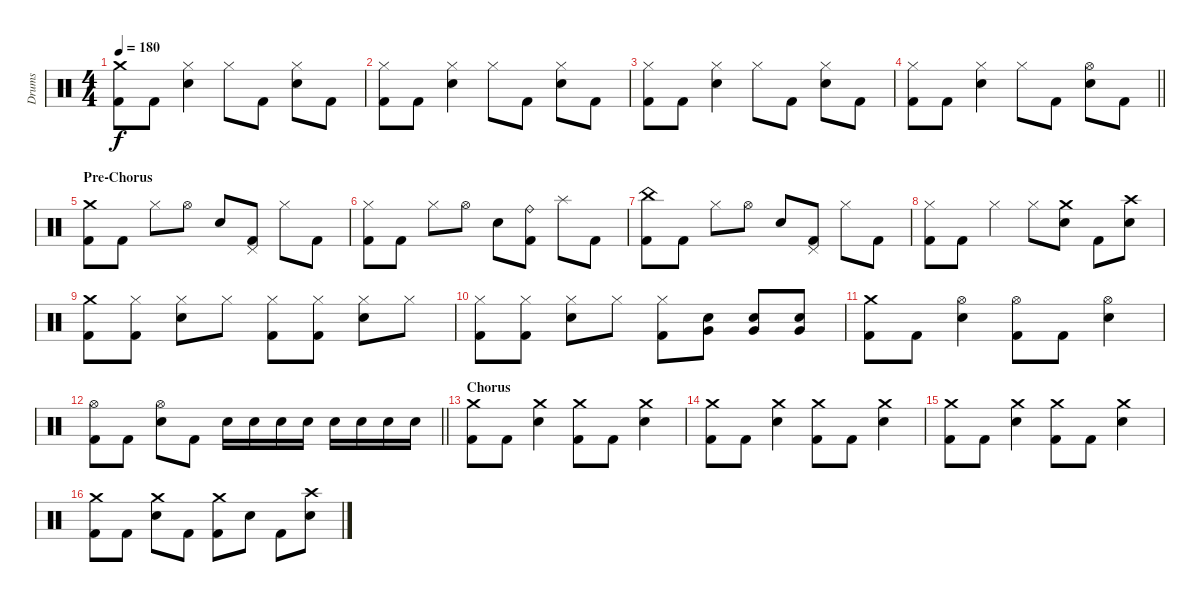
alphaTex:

\track ("Drums" "Drums") {instrument percussion}
\staff {score}
\articulation defaults
\ts (4 4)
\tempo 180
\clef neutral
\ks c
("Crash medium (hit)" "Kick (hit) 2").8{dy f} "Kick (hit) 2".8 ("Hi-Hat (closed)" "Electric Snare (hit)").4 "Hi-Hat (closed)".8 "Kick (hit) 2".8 ("Hi-Hat (closed)" "Electric Snare (hit)").8 "Kick (hit) 2".8 |
("Hi-Hat (closed)" "Kick (hit) 2").8 "Kick (hit) 2".8 ("Hi-Hat (closed)" "Electric Snare (hit)").4 "Hi-Hat (closed)".8 "Kick (hit) 2".8 ("Hi-Hat (closed)" "Electric Snare (hit)").8 "Kick (hit) 2".8 |
("Hi-Hat (closed)" "Kick (hit) 2").8 "Kick (hit) 2".8 ("Hi-Hat (closed)" "Electric Snare (hit)").4 "Hi-Hat (closed)".8 "Kick (hit) 2".8 ("Hi-Hat (closed)" "Electric Snare (hit)").8 "Kick (hit) 2".8 |
\barLineRight lightlight
("Hi-Hat (closed)" "Kick (hit) 2").8 "Kick (hit) 2".8 ("Hi-Hat (closed)" "Electric Snare (hit)").4 "Hi-Hat (closed)".8 "Kick (hit) 2".8 ("Hi-Hat (open)" "Electric Snare (hit)").8 "Kick (hit) 2".8 |
\section ("" "Pre-Chorus")
("Crash medium (hit)" "Kick (hit) 2").8 "Kick (hit) 2".8 "Hi-Hat (closed)".8 "Hi-Hat (open)".8 "Electric Snare (hit)".8 ("Pedal Hi-Hat (hit)" "Kick (hit) 2").8 "Hi-Hat (closed)".8 "Kick (hit) 2".8 |
("Hi-Hat (closed)" "Kick (hit) 2").8 "Kick (hit) 2".8 "Hi-Hat (closed)".8 "Hi-Hat (open)".8 "Electric Snare (hit)".8 ("Ride (bell)" "Kick (hit) 2").8 "Splash (hit)".8 "Kick (hit) 2".8 |
("China (hit)" "Kick (hit) 2").8 "Kick (hit) 2".8 "Hi-Hat (closed)".8 "Hi-Hat (open)".8 "Electric Snare (hit)".8 ("Pedal Hi-Hat (hit)" "Kick (hit) 2").8 "Hi-Hat (closed)".8 "Kick (hit) 2".8 |
("Hi-Hat (closed)" "Kick (hit) 2").8 "Kick (hit) 2".8 "Hi-Hat (closed)".4 "Hi-Hat (closed)".8 ("Crash medium (hit)" "Electric Snare (hit)").8 "Kick (hit) 2".8 ("Crash high (hit)" "Electric Snare (hit)").8 |
("Crash medium (hit)" "Kick (hit) 2").8 ("Hi-Hat (closed)" "Kick (hit) 2").8 ("Hi-Hat (closed)" "Electric Snare (hit)").8 "Hi-Hat (closed)".8 ("Hi-Hat (closed)" "Kick (hit) 2").8 ("Hi-Hat (closed)" "Kick (hit) 2").8 ("Hi-Hat (closed)" "Electric Snare (hit)").8 "Hi-Hat (closed)".8 |
("Hi-Hat (closed)" "Kick (hit) 2").8 ("Hi-Hat (closed)" "Kick (hit) 2").8 ("Hi-Hat (closed)" "Electric Snare (hit)").8 "Hi-Hat (closed)".8 ("Hi-Hat (closed)" "Kick (hit) 2").8 ("Very Low Tom (hit)" "Electric Snare (hit)").8 ("Very Low Tom (hit)" "Electric Snare (hit)").8 ("Very Low Tom (hit)" "Electric Snare (hit)").8 |
("Crash medium (hit)" "Kick (hit) 2").8 "Kick (hit) 2".8 ("Hi-Hat (open)" "Electric Snare (hit)").4 ("Hi-Hat (open)" "Kick (hit) 2").8 "Kick (hit) 2".8 ("Hi-Hat (open)" "Electric Snare (hit)").4 |
\barLineRight lightlight
("Hi-Hat (open)" "Kick (hit) 2").8 "Kick (hit) 2".8 ("Hi-Hat (open)" "Electric Snare (hit)").8 "Kick (hit) 2".8 "Electric Snare (hit)".16 "Electric Snare (hit)".16 "Electric Snare (hit)".16 "Electric Snare (hit)".16 "Electric Snare (hit)".16 "Electric Snare (hit)".16 "Electric Snare (hit)".16 "Electric Snare (hit)".16 |
\section ("" "Chorus")
("Crash medium (hit)" "Kick (hit) 2").8 "Kick (hit) 2".8 ("Crash medium (hit)" "Electric Snare (hit)").4 ("Crash medium (hit)" "Kick (hit) 2").8 "Kick (hit) 2".8 ("Crash medium (hit)" "Electric Snare (hit)").4 |
("Crash medium (hit)" "Kick (hit) 2").8 "Kick (hit) 2".8 ("Crash medium (hit)" "Electric Snare (hit)").4 ("Crash medium (hit)" "Kick (hit) 2").8 "Kick (hit) 2".8 ("Crash medium (hit)" "Electric Snare (hit)").4 |
("Crash medium (hit)" "Kick (hit) 2").8 "Kick (hit) 2".8 ("Crash medium (hit)" "Electric Snare (hit)").4 ("Crash medium (hit)" "Kick (hit) 2").8 "Kick (hit) 2".8 ("Crash medium (hit)" "Electric Snare (hit)").4 |
("Crash medium (hit)" "Kick (hit) 2").8 "Kick (hit) 2".8 ("Crash medium (hit)" "Electric Snare (hit)").8 "Kick (hit) 2".8 ("Crash medium (hit)" "Kick (hit) 2").8 "Electric Snare (hit)".8 "Kick (hit) 2".8 ("Crash high (hit)" "Electric Snare (hit)").8
